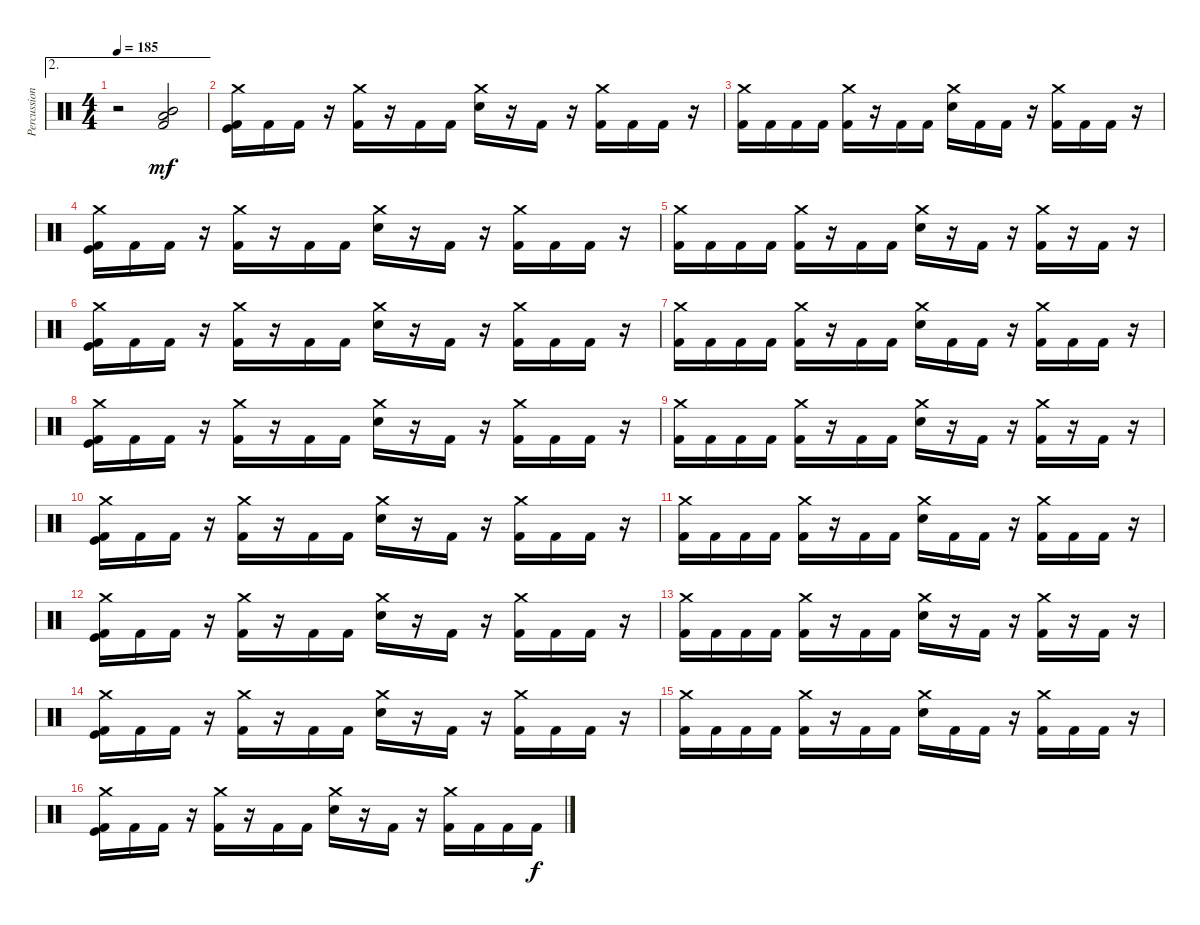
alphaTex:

\track ("Percussions" "Percussion") {instrument percussion}
\staff {score}
\articulation defaults
\ae 2
\ts (4 4)
\tempo 185
\clef neutral
\ks c
r.2{dy mf} ("Kick (hit) 2" "Mid Tom (hit)" "Low Tom (hit)").2 |
("Kick (hit) 2" "Kick (hit)" "Crash medium (hit)").16 "Kick (hit) 2".16 "Kick (hit) 2".16 r.16 ("Kick (hit) 2" "Crash medium (hit)").16 r.16 "Kick (hit) 2".16 "Kick (hit) 2".16 ("Electric Snare (hit)" "Crash medium (hit)").16 r.16 "Kick (hit) 2".16 r.16 ("Kick (hit) 2" "Crash medium (hit)").16 "Kick (hit) 2".16 "Kick (hit) 2".16 r.16 |
("Kick (hit) 2" "Crash medium (hit)").16 "Kick (hit) 2".16 "Kick (hit) 2".16 "Kick (hit) 2".16 ("Kick (hit) 2" "Crash medium (hit)").16 r.16 "Kick (hit) 2".16 "Kick (hit) 2".16 ("Electric Snare (hit)" "Crash medium (hit)").16 "Kick (hit) 2".16 "Kick (hit) 2".16 r.16 ("Kick (hit) 2" "Crash medium (hit)").16 "Kick (hit) 2".16 "Kick (hit) 2".16 r.16 |
("Kick (hit) 2" "Kick (hit)" "Crash medium (hit)").16 "Kick (hit) 2".16 "Kick (hit) 2".16 r.16 ("Kick (hit) 2" "Crash medium (hit)").16 r.16 "Kick (hit) 2".16 "Kick (hit) 2".16 ("Electric Snare (hit)" "Crash medium (hit)").16 r.16 "Kick (hit) 2".16 r.16 ("Kick (hit) 2" "Crash medium (hit)").16 "Kick (hit) 2".16 "Kick (hit) 2".16 r.16 |
("Kick (hit) 2" "Crash medium (hit)").16 "Kick (hit) 2".16 "Kick (hit) 2".16 "Kick (hit) 2".16 ("Kick (hit) 2" "Crash medium (hit)").16 r.16 "Kick (hit) 2".16 "Kick (hit) 2".16 ("Electric Snare (hit)" "Crash medium (hit)").16 r.16 "Kick (hit) 2".16 r.16 ("Kick (hit) 2" "Crash medium (hit)").16 r.16 "Kick (hit) 2".16 r.16 |
("Kick (hit) 2" "Kick (hit)" "Crash medium (hit)").16 "Kick (hit) 2".16 "Kick (hit) 2".16 r.16 ("Kick (hit) 2" "Crash medium (hit)").16 r.16 "Kick (hit) 2".16 "Kick (hit) 2".16 ("Electric Snare (hit)" "Crash medium (hit)").16 r.16 "Kick (hit) 2".16 r.16 ("Kick (hit) 2" "Crash medium (hit)").16 "Kick (hit) 2".16 "Kick (hit) 2".16 r.16 |
("Kick (hit) 2" "Crash medium (hit)").16 "Kick (hit) 2".16 "Kick (hit) 2".16 "Kick (hit) 2".16 ("Kick (hit) 2" "Crash medium (hit)").16 r.16 "Kick (hit) 2".16 "Kick (hit) 2".16 ("Electric Snare (hit)" "Crash medium (hit)").16 "Kick (hit) 2".16 "Kick (hit) 2".16 r.16 ("Kick (hit) 2" "Crash medium (hit)").16 "Kick (hit) 2".16 "Kick (hit) 2".16 r.16 |
("Kick (hit) 2" "Kick (hit)" "Crash medium (hit)").16 "Kick (hit) 2".16 "Kick (hit) 2".16 r.16 ("Kick (hit) 2" "Crash medium (hit)").16 r.16 "Kick (hit) 2".16 "Kick (hit) 2".16 ("Electric Snare (hit)" "Crash medium (hit)").16 r.16 "Kick (hit) 2".16 r.16 ("Kick (hit) 2" "Crash medium (hit)").16 "Kick (hit) 2".16 "Kick (hit) 2".16 r.16 |
("Kick (hit) 2" "Crash medium (hit)").16 "Kick (hit) 2".16 "Kick (hit) 2".16 "Kick (hit) 2".16 ("Kick (hit) 2" "Crash medium (hit)").16 r.16 "Kick (hit) 2".16 "Kick (hit) 2".16 ("Electric Snare (hit)" "Crash medium (hit)").16 r.16 "Kick (hit) 2".16 r.16 ("Kick (hit) 2" "Crash medium (hit)").16 r.16 "Kick (hit) 2".16 r.16 |
("Kick (hit) 2" "Kick (hit)" "Crash medium (hit)").16 "Kick (hit) 2".16 "Kick (hit) 2".16 r.16 ("Kick (hit) 2" "Crash medium (hit)").16 r.16 "Kick (hit) 2".16 "Kick (hit) 2".16 ("Electric Snare (hit)" "Crash medium (hit)").16 r.16 "Kick (hit) 2".16 r.16 ("Kick (hit) 2" "Crash medium (hit)").16 "Kick (hit) 2".16 "Kick (hit) 2".16 r.16 |
("Kick (hit) 2" "Crash medium (hit)").16 "Kick (hit) 2".16 "Kick (hit) 2".16 "Kick (hit) 2".16 ("Kick (hit) 2" "Crash medium (hit)").16 r.16 "Kick (hit) 2".16 "Kick (hit) 2".16 ("Electric Snare (hit)" "Crash medium (hit)").16 "Kick (hit) 2".16 "Kick (hit) 2".16 r.16 ("Kick (hit) 2" "Crash medium (hit)").16 "Kick (hit) 2".16 "Kick (hit) 2".16 r.16 |
("Kick (hit) 2" "Kick (hit)" "Crash medium (hit)").16 "Kick (hit) 2".16 "Kick (hit) 2".16 r.16 ("Kick (hit) 2" "Crash medium (hit)").16 r.16 "Kick (hit) 2".16 "Kick (hit) 2".16 ("Electric Snare (hit)" "Crash medium (hit)").16 r.16 "Kick (hit) 2".16 r.16 ("Kick (hit) 2" "Crash medium (hit)").16 "Kick (hit) 2".16 "Kick (hit) 2".16 r.16 |
("Kick (hit) 2" "Crash medium (hit)").16 "Kick (hit) 2".16 "Kick (hit) 2".16 "Kick (hit) 2".16 ("Kick (hit) 2" "Crash medium (hit)").16 r.16 "Kick (hit) 2".16 "Kick (hit) 2".16 ("Electric Snare (hit)" "Crash medium (hit)").16 r.16 "Kick (hit) 2".16 r.16 ("Kick (hit) 2" "Crash medium (hit)").16 r.16 "Kick (hit) 2".16 r.16 |
("Kick (hit) 2" "Kick (hit)" "Crash medium (hit)").16 "Kick (hit) 2".16 "Kick (hit) 2".16 r.16 ("Kick (hit) 2" "Crash medium (hit)").16 r.16 "Kick (hit) 2".16 "Kick (hit) 2".16 ("Electric Snare (hit)" "Crash medium (hit)").16 r.16 "Kick (hit) 2".16 r.16 ("Kick (hit) 2" "Crash medium (hit)").16 "Kick (hit) 2".16 "Kick (hit) 2".16 r.16 |
("Kick (hit) 2" "Crash medium (hit)").16 "Kick (hit) 2".16 "Kick (hit) 2".16 "Kick (hit) 2".16 ("Kick (hit) 2" "Crash medium (hit)").16 r.16 "Kick (hit) 2".16 "Kick (hit) 2".16 ("Electric Snare (hit)" "Crash medium (hit)").16 "Kick (hit) 2".16 "Kick (hit) 2".16 r.16 ("Kick (hit) 2" "Crash medium (hit)").16 "Kick (hit) 2".16 "Kick (hit) 2".16 r.16 |
("Kick (hit) 2" "Kick (hit)" "Crash medium (hit)").16 "Kick (hit) 2".16 "Kick (hit) 2".16 r.16 ("Kick (hit) 2" "Crash medium (hit)").16 r.16 "Kick (hit) 2".16 "Kick (hit) 2".16 ("Electric Snare (hit)" "Crash medium (hit)").16 r.16 "Kick (hit) 2".16 r.16 ("Kick (hit) 2" "Crash medium (hit)").16 "Kick (hit) 2".16 "Kick (hit) 2".16 "Kick (hit) 2".16{dy f}
